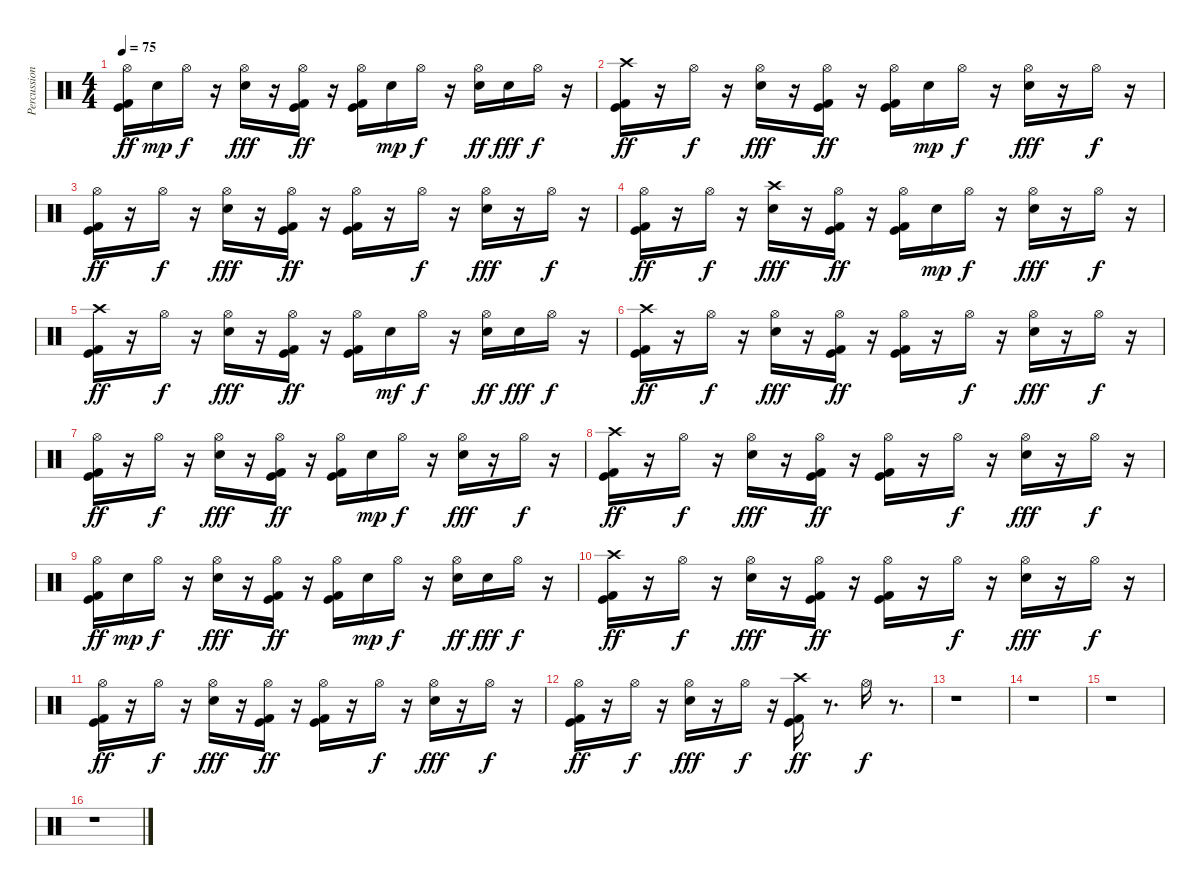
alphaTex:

\track ("Percussion" "Percussion") {instrument percussion}
\staff {score}
\articulation defaults
\ts (4 4)
\tempo 75
\clef neutral
\ks c
("Hi-Hat (open)" "Kick (hit)" "Kick (hit) 2").16{dy ff} "Electric Snare (hit)".16{dy mp} "Hi-Hat (open)".16{dy f} r.16 ("Hi-Hat (open)" "Electric Snare (hit)").16{dy fff} r.16 ("Hi-Hat (open)" "Kick (hit)" "Kick (hit) 2").16{dy ff} r.16 ("Hi-Hat (open)" "Kick (hit)" "Kick (hit) 2").16 "Electric Snare (hit)".16{dy mp} "Hi-Hat (open)".16{dy f} r.16 ("Hi-Hat (open)" "Electric Snare (hit)").16{dy ff} "Electric Snare (hit)".16{dy fff} "Hi-Hat (open)".16{dy f} r.16 |
("Crash high (hit)" "Kick (hit)" "Kick (hit) 2").16{dy ff} r.16 "Hi-Hat (open)".16{dy f} r.16 ("Hi-Hat (open)" "Electric Snare (hit)").16{dy fff} r.16 ("Hi-Hat (open)" "Kick (hit)" "Kick (hit) 2").16{dy ff} r.16 ("Hi-Hat (open)" "Kick (hit)" "Kick (hit) 2").16 "Electric Snare (hit)".16{dy mp} "Hi-Hat (open)".16{dy f} r.16 ("Hi-Hat (open)" "Electric Snare (hit)").16{dy fff} r.16 "Hi-Hat (open)".16{dy f} r.16 |
("Hi-Hat (open)" "Kick (hit)" "Kick (hit) 2").16{dy ff} r.16 "Hi-Hat (open)".16{dy f} r.16 ("Hi-Hat (open)" "Electric Snare (hit)").16{dy fff} r.16 ("Hi-Hat (open)" "Kick (hit)" "Kick (hit) 2").16{dy ff} r.16 ("Hi-Hat (open)" "Kick (hit)" "Kick (hit) 2").16 r.16 "Hi-Hat (open)".16{dy f} r.16 ("Hi-Hat (open)" "Electric Snare (hit)").16{dy fff} r.16 "Hi-Hat (open)".16{dy f} r.16 |
("Kick (hit) 2" "Hi-Hat (open)" "Kick (hit)").16{dy ff} r.16 "Hi-Hat (open)".16{dy f} r.16 ("Electric Snare (hit)" "Crash high (hit)").16{dy fff} r.16 ("Hi-Hat (open)" "Kick (hit)" "Kick (hit) 2").16{dy ff} r.16 ("Hi-Hat (open)" "Kick (hit)" "Kick (hit) 2").16 "Electric Snare (hit)".16{dy mp} "Hi-Hat (open)".16{dy f} r.16 ("Hi-Hat (open)" "Electric Snare (hit)").16{dy fff} r.16 "Hi-Hat (open)".16{dy f} r.16 |
("Kick (hit)" "Kick (hit) 2" "Crash high (hit)").16{dy ff} r.16 "Hi-Hat (open)".16{dy f} r.16 ("Electric Snare (hit)" "Hi-Hat (open)").16{dy fff} r.16 ("Hi-Hat (open)" "Kick (hit)" "Kick (hit) 2").16{dy ff} r.16 ("Hi-Hat (open)" "Kick (hit)" "Kick (hit) 2").16 "Electric Snare (hit)".16{dy mf} "Hi-Hat (open)".16{dy f} r.16 ("Hi-Hat (open)" "Electric Snare (hit)").16{dy ff} "Electric Snare (hit)".16{dy fff} "Hi-Hat (open)".16{dy f} r.16 |
("Crash high (hit)" "Kick (hit)" "Kick (hit) 2").16{dy ff} r.16 "Hi-Hat (open)".16{dy f} r.16 ("Hi-Hat (open)" "Electric Snare (hit)").16{dy fff} r.16 ("Hi-Hat (open)" "Kick (hit)" "Kick (hit) 2").16{dy ff} r.16 ("Hi-Hat (open)" "Kick (hit)" "Kick (hit) 2").16 r.16 "Hi-Hat (open)".16{dy f} r.16 ("Hi-Hat (open)" "Electric Snare (hit)").16{dy fff} r.16 "Hi-Hat (open)".16{dy f} r.16 |
("Hi-Hat (open)" "Kick (hit)" "Kick (hit) 2").16{dy ff} r.16 "Hi-Hat (open)".16{dy f} r.16 ("Hi-Hat (open)" "Electric Snare (hit)").16{dy fff} r.16 ("Hi-Hat (open)" "Kick (hit)" "Kick (hit) 2").16{dy ff} r.16 ("Hi-Hat (open)" "Kick (hit)" "Kick (hit) 2").16 "Electric Snare (hit)".16{dy mp} "Hi-Hat (open)".16{dy f} r.16 ("Hi-Hat (open)" "Electric Snare (hit)").16{dy fff} r.16 "Hi-Hat (open)".16{dy f} r.16 |
("Crash high (hit)" "Kick (hit)" "Kick (hit) 2").16{dy ff} r.16 "Hi-Hat (open)".16{dy f} r.16 ("Hi-Hat (open)" "Electric Snare (hit)").16{dy fff} r.16 ("Hi-Hat (open)" "Kick (hit)" "Kick (hit) 2").16{dy ff} r.16 ("Hi-Hat (open)" "Kick (hit)" "Kick (hit) 2").16 r.16 "Hi-Hat (open)".16{dy f} r.16 ("Hi-Hat (open)" "Electric Snare (hit)").16{dy fff} r.16 "Hi-Hat (open)".16{dy f} r.16 |
("Hi-Hat (open)" "Kick (hit)" "Kick (hit) 2").16{dy ff} "Electric Snare (hit)".16{dy mp} "Hi-Hat (open)".16{dy f} r.16 ("Hi-Hat (open)" "Electric Snare (hit)").16{dy fff} r.16 ("Hi-Hat (open)" "Kick (hit)" "Kick (hit) 2").16{dy ff} r.16 ("Hi-Hat (open)" "Kick (hit)" "Kick (hit) 2").16 "Electric Snare (hit)".16{dy mp} "Hi-Hat (open)".16{dy f} r.16 ("Hi-Hat (open)" "Electric Snare (hit)").16{dy ff} "Electric Snare (hit)".16{dy fff} "Hi-Hat (open)".16{dy f} r.16 |
("Crash high (hit)" "Kick (hit)" "Kick (hit) 2").16{dy ff} r.16 "Hi-Hat (open)".16{dy f} r.16 ("Hi-Hat (open)" "Electric Snare (hit)").16{dy fff} r.16 ("Hi-Hat (open)" "Kick (hit)" "Kick (hit) 2").16{dy ff} r.16 ("Hi-Hat (open)" "Kick (hit)" "Kick (hit) 2").16 r.16 "Hi-Hat (open)".16{dy f} r.16 ("Hi-Hat (open)" "Electric Snare (hit)").16{dy fff} r.16 "Hi-Hat (open)".16{dy f} r.16 |
("Hi-Hat (open)" "Kick (hit)" "Kick (hit) 2").16{dy ff} r.16 "Hi-Hat (open)".16{dy f} r.16 ("Hi-Hat (open)" "Electric Snare (hit)").16{dy fff} r.16 ("Hi-Hat (open)" "Kick (hit)" "Kick (hit) 2").16{dy ff} r.16 ("Hi-Hat (open)" "Kick (hit)" "Kick (hit) 2").16 r.16 "Hi-Hat (open)".16{dy f} r.16 ("Hi-Hat (open)" "Electric Snare (hit)").16{dy fff} r.16 "Hi-Hat (open)".16{dy f} r.16 |
("Hi-Hat (open)" "Kick (hit)" "Kick (hit) 2").16{dy ff} r.16 "Hi-Hat (open)".16{dy f} r.16 ("Hi-Hat (open)" "Electric Snare (hit)").16{dy fff} r.16 "Hi-Hat (open)".16{dy f} r.16 ("Crash high (hit)" "Kick (hit)" "Kick (hit) 2").16{dy ff} r.8{d} "Hi-Hat (open)".16{dy f} r.8{d} |
r.1 |
r.1 |
r.1 |
r.1
